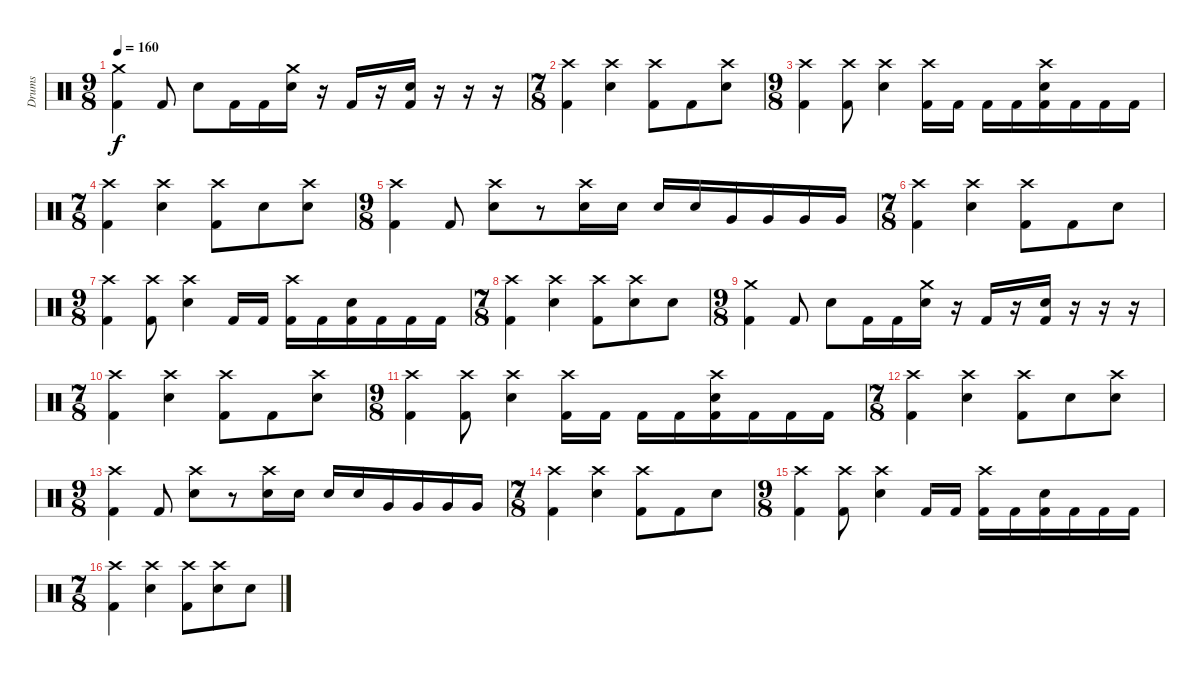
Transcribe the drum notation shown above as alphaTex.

\track ("Drums" "Drums") {instrument percussion}
\staff {score}
\articulation defaults
\ts (9 8)
\tempo 160
\clef neutral
\ks c
("Crash medium (hit)" "Kick (hit) 2").4{dy f} "Kick (hit) 2".8 "Snare (hit) 2".8 "Kick (hit) 2".16 "Kick (hit) 2".16 ("Crash medium (hit)" "Snare (hit) 2").16 r.16 "Kick (hit) 2".16 r.16 ("Snare (hit) 2" "Kick (hit) 2").16 r.16 r.16 r.16 |
\ts (7 8)
("Crash high (hit)" "Kick (hit) 2").4 ("Crash high (hit)" "Snare (hit) 2").4 ("Crash high (hit)" "Kick (hit) 2").8 "Kick (hit) 2".8 ("Crash high (hit)" "Snare (hit) 2").8 |
\ts (9 8)
("Crash high (hit)" "Kick (hit) 2").4 ("Crash high (hit)" "Kick (hit) 2").8 ("Crash high (hit)" "Snare (hit) 2").4 ("Crash high (hit)" "Kick (hit) 2").16 "Kick (hit) 2".16 "Kick (hit) 2".16 "Kick (hit) 2".16 ("Crash high (hit)" "Kick (hit) 2" "Snare (hit) 2").16 "Kick (hit) 2".16 "Kick (hit) 2".16 "Kick (hit) 2".16 |
\ts (7 8)
("Crash high (hit)" "Kick (hit) 2").4 ("Crash high (hit)" "Snare (hit) 2").4 ("Crash high (hit)" "Kick (hit) 2").8 "Snare (hit) 2".8 ("Crash high (hit)" "Snare (hit) 2").8 |
\ts (9 8)
("Crash high (hit)" "Kick (hit) 2").4 "Kick (hit) 2".8 ("Crash high (hit)" "Snare (hit) 2").8 r.8 ("Crash high (hit)" "Snare (hit) 2").16 "Snare (hit) 2".16 "Snare (hit) 2".16 "Snare (hit) 2".16 "Very Low Tom (hit)".16 "Very Low Tom (hit)".16 "Very Low Tom (hit)".16 "Very Low Tom (hit)".16 |
\ts (7 8)
("Crash high (hit)" "Kick (hit) 2").4 ("Crash high (hit)" "Snare (hit) 2").4 ("Crash high (hit)" "Kick (hit) 2").8 "Kick (hit) 2".8 "Snare (hit) 2".8 |
\ts (9 8)
("Crash high (hit)" "Kick (hit) 2").4 ("Crash high (hit)" "Kick (hit) 2").8 ("Crash high (hit)" "Snare (hit) 2").4 "Kick (hit) 2".16 "Kick (hit) 2".16 ("Crash high (hit)" "Kick (hit) 2").16 "Kick (hit) 2".16 ("Kick (hit) 2" "Snare (hit) 2").16 "Kick (hit) 2".16 "Kick (hit) 2".16 "Kick (hit) 2".16 |
\ts (7 8)
("Crash high (hit)" "Kick (hit) 2").4 ("Crash high (hit)" "Snare (hit) 2").4 ("Crash high (hit)" "Kick (hit) 2").8 ("Crash high (hit)" "Snare (hit) 2").8 "Snare (hit) 2".8 |
\ts (9 8)
("Crash medium (hit)" "Kick (hit) 2").4 "Kick (hit) 2".8 "Snare (hit) 2".8 "Kick (hit) 2".16 "Kick (hit) 2".16 ("Crash medium (hit)" "Snare (hit) 2").16 r.16 "Kick (hit) 2".16 r.16 ("Snare (hit) 2" "Kick (hit) 2").16 r.16 r.16 r.16 |
\ts (7 8)
("Crash high (hit)" "Kick (hit) 2").4 ("Crash high (hit)" "Snare (hit) 2").4 ("Crash high (hit)" "Kick (hit) 2").8 "Kick (hit) 2".8 ("Crash high (hit)" "Snare (hit) 2").8 |
\ts (9 8)
("Crash high (hit)" "Kick (hit) 2").4 ("Crash high (hit)" "Kick (hit) 2").8 ("Crash high (hit)" "Snare (hit) 2").4 ("Crash high (hit)" "Kick (hit) 2").16 "Kick (hit) 2".16 "Kick (hit) 2".16 "Kick (hit) 2".16 ("Crash high (hit)" "Kick (hit) 2" "Snare (hit) 2").16 "Kick (hit) 2".16 "Kick (hit) 2".16 "Kick (hit) 2".16 |
\ts (7 8)
("Crash high (hit)" "Kick (hit) 2").4 ("Crash high (hit)" "Snare (hit) 2").4 ("Crash high (hit)" "Kick (hit) 2").8 "Snare (hit) 2".8 ("Crash high (hit)" "Snare (hit) 2").8 |
\ts (9 8)
("Crash high (hit)" "Kick (hit) 2").4 "Kick (hit) 2".8 ("Crash high (hit)" "Snare (hit) 2").8 r.8 ("Crash high (hit)" "Snare (hit) 2").16 "Snare (hit) 2".16 "Snare (hit) 2".16 "Snare (hit) 2".16 "Very Low Tom (hit)".16 "Very Low Tom (hit)".16 "Very Low Tom (hit)".16 "Very Low Tom (hit)".16 |
\ts (7 8)
("Crash high (hit)" "Kick (hit) 2").4 ("Crash high (hit)" "Snare (hit) 2").4 ("Crash high (hit)" "Kick (hit) 2").8 "Kick (hit) 2".8 "Snare (hit) 2".8 |
\ts (9 8)
("Crash high (hit)" "Kick (hit) 2").4 ("Crash high (hit)" "Kick (hit) 2").8 ("Crash high (hit)" "Snare (hit) 2").4 "Kick (hit) 2".16 "Kick (hit) 2".16 ("Crash high (hit)" "Kick (hit) 2").16 "Kick (hit) 2".16 ("Kick (hit) 2" "Snare (hit) 2").16 "Kick (hit) 2".16 "Kick (hit) 2".16 "Kick (hit) 2".16 |
\ts (7 8)
("Crash high (hit)" "Kick (hit) 2").4 ("Crash high (hit)" "Snare (hit) 2").4 ("Crash high (hit)" "Kick (hit) 2").8 ("Crash high (hit)" "Snare (hit) 2").8 "Snare (hit) 2".8
